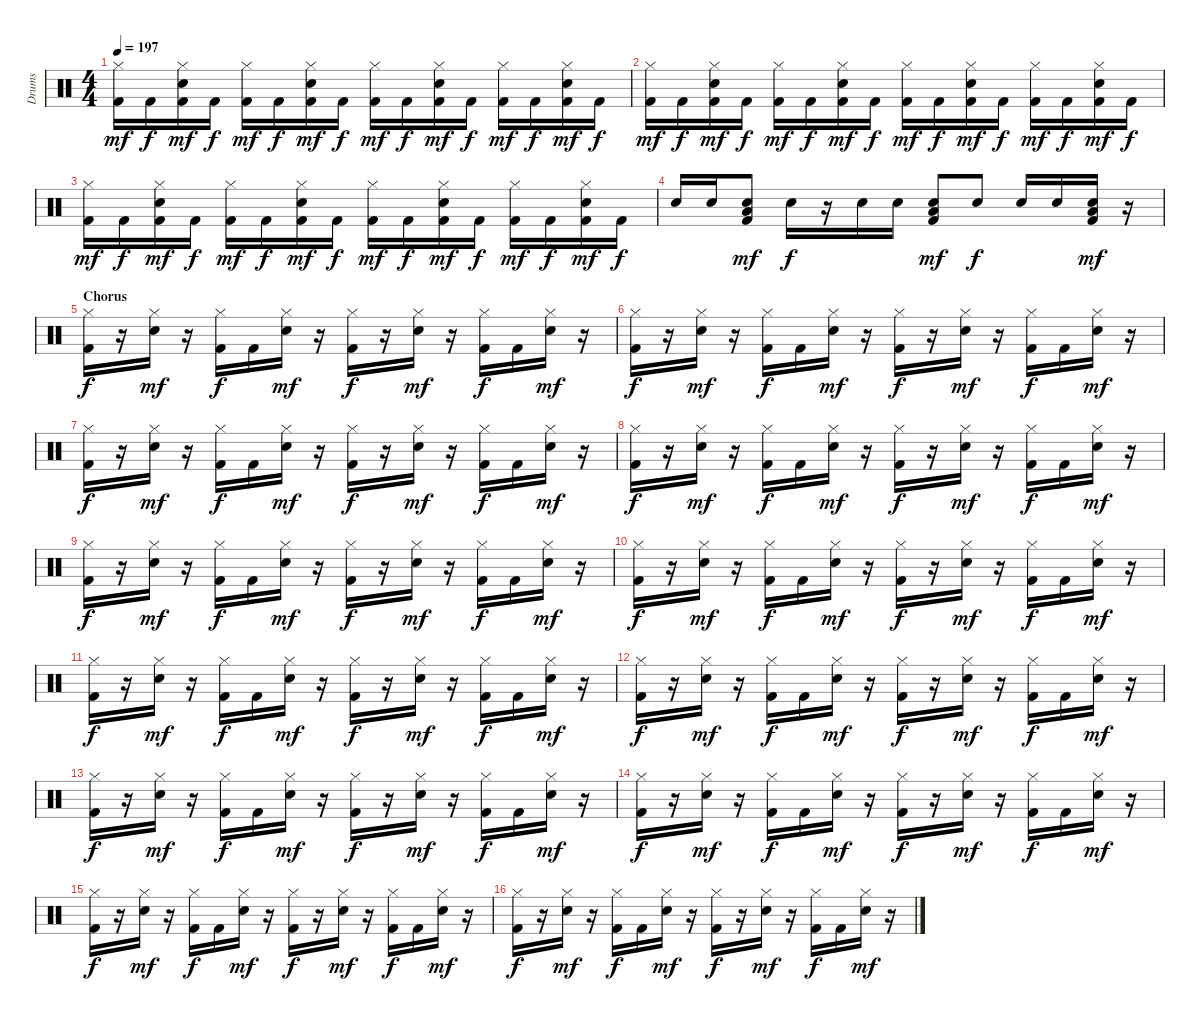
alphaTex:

\track ("Drums" "Drums") {instrument percussion}
\staff {score}
\articulation defaults
\ts (4 4)
\tempo 197
\clef neutral
\ks c
("Kick (hit) 2" "Hi-Hat (closed)").16{dy mf} "Kick (hit) 2".16{dy f} ("Kick (hit) 2" "Snare (hit) 2" "Hi-Hat (closed)").16{dy mf} "Kick (hit) 2".16{dy f} ("Kick (hit) 2" "Hi-Hat (closed)").16{dy mf} "Kick (hit) 2".16{dy f} ("Kick (hit) 2" "Snare (hit) 2" "Hi-Hat (closed)").16{dy mf} "Kick (hit) 2".16{dy f} ("Kick (hit) 2" "Hi-Hat (closed)").16{dy mf} "Kick (hit) 2".16{dy f} ("Kick (hit) 2" "Snare (hit) 2" "Hi-Hat (closed)").16{dy mf} "Kick (hit) 2".16{dy f} ("Kick (hit) 2" "Hi-Hat (closed)").16{dy mf} "Kick (hit) 2".16{dy f} ("Kick (hit) 2" "Snare (hit) 2" "Hi-Hat (closed)").16{dy mf} "Kick (hit) 2".16{dy f} |
("Kick (hit) 2" "Hi-Hat (closed)").16{dy mf} "Kick (hit) 2".16{dy f} ("Kick (hit) 2" "Snare (hit) 2" "Hi-Hat (closed)").16{dy mf} "Kick (hit) 2".16{dy f} ("Kick (hit) 2" "Hi-Hat (closed)").16{dy mf} "Kick (hit) 2".16{dy f} ("Kick (hit) 2" "Snare (hit) 2" "Hi-Hat (closed)").16{dy mf} "Kick (hit) 2".16{dy f} ("Kick (hit) 2" "Hi-Hat (closed)").16{dy mf} "Kick (hit) 2".16{dy f} ("Kick (hit) 2" "Snare (hit) 2" "Hi-Hat (closed)").16{dy mf} "Kick (hit) 2".16{dy f} ("Kick (hit) 2" "Hi-Hat (closed)").16{dy mf} "Kick (hit) 2".16{dy f} ("Kick (hit) 2" "Snare (hit) 2" "Hi-Hat (closed)").16{dy mf} "Kick (hit) 2".16{dy f} |
("Kick (hit) 2" "Hi-Hat (closed)").16{dy mf} "Kick (hit) 2".16{dy f} ("Kick (hit) 2" "Snare (hit) 2" "Hi-Hat (closed)").16{dy mf} "Kick (hit) 2".16{dy f} ("Kick (hit) 2" "Hi-Hat (closed)").16{dy mf} "Kick (hit) 2".16{dy f} ("Kick (hit) 2" "Snare (hit) 2" "Hi-Hat (closed)").16{dy mf} "Kick (hit) 2".16{dy f} ("Kick (hit) 2" "Hi-Hat (closed)").16{dy mf} "Kick (hit) 2".16{dy f} ("Kick (hit) 2" "Snare (hit) 2" "Hi-Hat (closed)").16{dy mf} "Kick (hit) 2".16{dy f} ("Kick (hit) 2" "Hi-Hat (closed)").16{dy mf} "Kick (hit) 2".16{dy f} ("Kick (hit) 2" "Snare (hit) 2" "Hi-Hat (closed)").16{dy mf} "Kick (hit) 2".16{dy f} |
"Snare (hit) 2".16 "Snare (hit) 2".16 ("Kick (hit) 2" "Snare (hit) 2" "Low Floor Tom (hit)").8{dy mf} "Snare (hit) 2".16{dy f} r.16 "Snare (hit) 2".16 "Snare (hit) 2".16 ("Kick (hit) 2" "Snare (hit) 2" "Low Floor Tom (hit)").8{dy mf} "Snare (hit) 2".8{dy f} "Snare (hit) 2".16 "Snare (hit) 2".16 ("Kick (hit) 2" "Snare (hit) 2" "Low Floor Tom (hit)").16{dy mf} r.16 |
\section ("" "Chorus")
("Kick (hit) 2" "Hi-Hat (closed)").16{dy f} r.16 ("Snare (hit) 2" "Hi-Hat (closed)").16{dy mf} r.16 ("Kick (hit) 2" "Hi-Hat (closed)").16{dy f} "Kick (hit) 2".16 ("Snare (hit) 2" "Hi-Hat (closed)").16{dy mf} r.16 ("Kick (hit) 2" "Hi-Hat (closed)").16{dy f} r.16 ("Snare (hit) 2" "Hi-Hat (closed)").16{dy mf} r.16 ("Kick (hit) 2" "Hi-Hat (closed)").16{dy f} "Kick (hit) 2".16 ("Snare (hit) 2" "Hi-Hat (closed)").16{dy mf} r.16 |
("Kick (hit) 2" "Hi-Hat (closed)").16{dy f} r.16 ("Snare (hit) 2" "Hi-Hat (closed)").16{dy mf} r.16 ("Kick (hit) 2" "Hi-Hat (closed)").16{dy f} "Kick (hit) 2".16 ("Snare (hit) 2" "Hi-Hat (closed)").16{dy mf} r.16 ("Kick (hit) 2" "Hi-Hat (closed)").16{dy f} r.16 ("Snare (hit) 2" "Hi-Hat (closed)").16{dy mf} r.16 ("Kick (hit) 2" "Hi-Hat (closed)").16{dy f} "Kick (hit) 2".16 ("Snare (hit) 2" "Hi-Hat (closed)").16{dy mf} r.16 |
("Kick (hit) 2" "Hi-Hat (closed)").16{dy f} r.16 ("Snare (hit) 2" "Hi-Hat (closed)").16{dy mf} r.16 ("Kick (hit) 2" "Hi-Hat (closed)").16{dy f} "Kick (hit) 2".16 ("Snare (hit) 2" "Hi-Hat (closed)").16{dy mf} r.16 ("Kick (hit) 2" "Hi-Hat (closed)").16{dy f} r.16 ("Snare (hit) 2" "Hi-Hat (closed)").16{dy mf} r.16 ("Kick (hit) 2" "Hi-Hat (closed)").16{dy f} "Kick (hit) 2".16 ("Snare (hit) 2" "Hi-Hat (closed)").16{dy mf} r.16 |
("Kick (hit) 2" "Hi-Hat (closed)").16{dy f} r.16 ("Snare (hit) 2" "Hi-Hat (closed)").16{dy mf} r.16 ("Kick (hit) 2" "Hi-Hat (closed)").16{dy f} "Kick (hit) 2".16 ("Snare (hit) 2" "Hi-Hat (closed)").16{dy mf} r.16 ("Kick (hit) 2" "Hi-Hat (closed)").16{dy f} r.16 ("Snare (hit) 2" "Hi-Hat (closed)").16{dy mf} r.16 ("Kick (hit) 2" "Hi-Hat (closed)").16{dy f} "Kick (hit) 2".16 ("Snare (hit) 2" "Hi-Hat (closed)").16{dy mf} r.16 |
("Kick (hit) 2" "Hi-Hat (closed)").16{dy f} r.16 ("Snare (hit) 2" "Hi-Hat (closed)").16{dy mf} r.16 ("Kick (hit) 2" "Hi-Hat (closed)").16{dy f} "Kick (hit) 2".16 ("Snare (hit) 2" "Hi-Hat (closed)").16{dy mf} r.16 ("Kick (hit) 2" "Hi-Hat (closed)").16{dy f} r.16 ("Snare (hit) 2" "Hi-Hat (closed)").16{dy mf} r.16 ("Kick (hit) 2" "Hi-Hat (closed)").16{dy f} "Kick (hit) 2".16 ("Snare (hit) 2" "Hi-Hat (closed)").16{dy mf} r.16 |
("Kick (hit) 2" "Hi-Hat (closed)").16{dy f} r.16 ("Snare (hit) 2" "Hi-Hat (closed)").16{dy mf} r.16 ("Kick (hit) 2" "Hi-Hat (closed)").16{dy f} "Kick (hit) 2".16 ("Snare (hit) 2" "Hi-Hat (closed)").16{dy mf} r.16 ("Kick (hit) 2" "Hi-Hat (closed)").16{dy f} r.16 ("Snare (hit) 2" "Hi-Hat (closed)").16{dy mf} r.16 ("Kick (hit) 2" "Hi-Hat (closed)").16{dy f} "Kick (hit) 2".16 ("Snare (hit) 2" "Hi-Hat (closed)").16{dy mf} r.16 |
("Kick (hit) 2" "Hi-Hat (closed)").16{dy f} r.16 ("Snare (hit) 2" "Hi-Hat (closed)").16{dy mf} r.16 ("Kick (hit) 2" "Hi-Hat (closed)").16{dy f} "Kick (hit) 2".16 ("Snare (hit) 2" "Hi-Hat (closed)").16{dy mf} r.16 ("Kick (hit) 2" "Hi-Hat (closed)").16{dy f} r.16 ("Snare (hit) 2" "Hi-Hat (closed)").16{dy mf} r.16 ("Kick (hit) 2" "Hi-Hat (closed)").16{dy f} "Kick (hit) 2".16 ("Snare (hit) 2" "Hi-Hat (closed)").16{dy mf} r.16 |
("Kick (hit) 2" "Hi-Hat (closed)").16{dy f} r.16 ("Snare (hit) 2" "Hi-Hat (closed)").16{dy mf} r.16 ("Kick (hit) 2" "Hi-Hat (closed)").16{dy f} "Kick (hit) 2".16 ("Snare (hit) 2" "Hi-Hat (closed)").16{dy mf} r.16 ("Kick (hit) 2" "Hi-Hat (closed)").16{dy f} r.16 ("Snare (hit) 2" "Hi-Hat (closed)").16{dy mf} r.16 ("Kick (hit) 2" "Hi-Hat (closed)").16{dy f} "Kick (hit) 2".16 ("Snare (hit) 2" "Hi-Hat (closed)").16{dy mf} r.16 |
("Kick (hit) 2" "Hi-Hat (closed)").16{dy f} r.16 ("Snare (hit) 2" "Hi-Hat (closed)").16{dy mf} r.16 ("Kick (hit) 2" "Hi-Hat (closed)").16{dy f} "Kick (hit) 2".16 ("Snare (hit) 2" "Hi-Hat (closed)").16{dy mf} r.16 ("Kick (hit) 2" "Hi-Hat (closed)").16{dy f} r.16 ("Snare (hit) 2" "Hi-Hat (closed)").16{dy mf} r.16 ("Kick (hit) 2" "Hi-Hat (closed)").16{dy f} "Kick (hit) 2".16 ("Snare (hit) 2" "Hi-Hat (closed)").16{dy mf} r.16 |
("Kick (hit) 2" "Hi-Hat (closed)").16{dy f} r.16 ("Snare (hit) 2" "Hi-Hat (closed)").16{dy mf} r.16 ("Kick (hit) 2" "Hi-Hat (closed)").16{dy f} "Kick (hit) 2".16 ("Snare (hit) 2" "Hi-Hat (closed)").16{dy mf} r.16 ("Kick (hit) 2" "Hi-Hat (closed)").16{dy f} r.16 ("Snare (hit) 2" "Hi-Hat (closed)").16{dy mf} r.16 ("Kick (hit) 2" "Hi-Hat (closed)").16{dy f} "Kick (hit) 2".16 ("Snare (hit) 2" "Hi-Hat (closed)").16{dy mf} r.16 |
("Kick (hit) 2" "Hi-Hat (closed)").16{dy f} r.16 ("Snare (hit) 2" "Hi-Hat (closed)").16{dy mf} r.16 ("Kick (hit) 2" "Hi-Hat (closed)").16{dy f} "Kick (hit) 2".16 ("Snare (hit) 2" "Hi-Hat (closed)").16{dy mf} r.16 ("Kick (hit) 2" "Hi-Hat (closed)").16{dy f} r.16 ("Snare (hit) 2" "Hi-Hat (closed)").16{dy mf} r.16 ("Kick (hit) 2" "Hi-Hat (closed)").16{dy f} "Kick (hit) 2".16 ("Snare (hit) 2" "Hi-Hat (closed)").16{dy mf} r.16 |
("Kick (hit) 2" "Hi-Hat (closed)").16{dy f} r.16 ("Snare (hit) 2" "Hi-Hat (closed)").16{dy mf} r.16 ("Kick (hit) 2" "Hi-Hat (closed)").16{dy f} "Kick (hit) 2".16 ("Snare (hit) 2" "Hi-Hat (closed)").16{dy mf} r.16 ("Kick (hit) 2" "Hi-Hat (closed)").16{dy f} r.16 ("Snare (hit) 2" "Hi-Hat (closed)").16{dy mf} r.16 ("Kick (hit) 2" "Hi-Hat (closed)").16{dy f} "Kick (hit) 2".16 ("Snare (hit) 2" "Hi-Hat (closed)").16{dy mf} r.16
